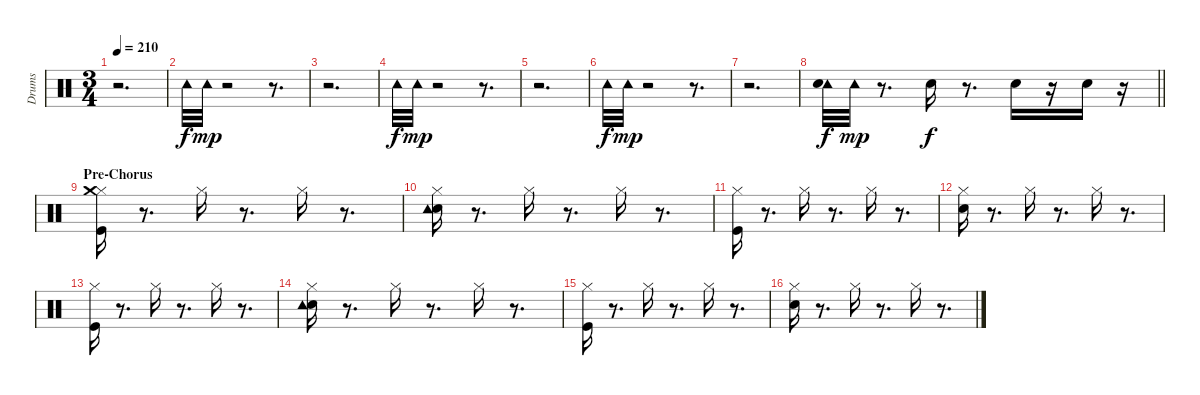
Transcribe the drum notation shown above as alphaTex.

\track ("Drums" "Drums") {instrument percussion}
\staff {score}
\articulation defaults
\ts (3 4)
\tempo 210
\clef neutral
\ks c
r.2{d dy f} |
"Tambourine (hit)".32 "Tambourine (hit)".32{dy mp} r.2 r.8{d} |
r.2{d} |
"Tambourine (hit)".32{dy f} "Tambourine (hit)".32{dy mp} r.2 r.8{d} |
r.2{d} |
"Tambourine (hit)".32{dy f} "Tambourine (hit)".32{dy mp} r.2 r.8{d} |
r.2{d} |
\barLineRight lightlight
("Tambourine (hit)" "Electric Snare (hit)").32{dy f} "Tambourine (hit)".32{dy mp} r.8{d} "Electric Snare (hit)".16{dy f} r.8{d} "Electric Snare (hit)".16 r.16 "Electric Snare (hit)".16 r.16 |
\section ("" "Pre-Chorus")
("Kick (hit)" "Hi-Hat (closed)" "Crash medium (hit)").16 r.8{d} "Hi-Hat (closed)".16 r.8{d} "Hi-Hat (closed)".16 r.8{d} |
("Hi-Hat (closed)" "Electric Snare (hit)" "Tambourine (hit)").16 r.8{d} "Hi-Hat (closed)".16 r.8{d} "Hi-Hat (closed)".16 r.8{d} |
("Kick (hit)" "Hi-Hat (closed)").16 r.8{d} "Hi-Hat (closed)".16 r.8{d} "Hi-Hat (closed)".16 r.8{d} |
("Hi-Hat (closed)" "Electric Snare (hit)").16 r.8{d} "Hi-Hat (closed)".16 r.8{d} "Hi-Hat (closed)".16 r.8{d} |
("Kick (hit)" "Hi-Hat (closed)").16 r.8{d} "Hi-Hat (closed)".16 r.8{d} "Hi-Hat (closed)".16 r.8{d} |
("Hi-Hat (closed)" "Electric Snare (hit)" "Tambourine (hit)").16 r.8{d} "Hi-Hat (closed)".16 r.8{d} "Hi-Hat (closed)".16 r.8{d} |
("Kick (hit)" "Hi-Hat (closed)").16 r.8{d} "Hi-Hat (closed)".16 r.8{d} "Hi-Hat (closed)".16 r.8{d} |
("Hi-Hat (closed)" "Electric Snare (hit)").16 r.8{d} "Hi-Hat (closed)".16 r.8{d} "Hi-Hat (closed)".16 r.8{d}
